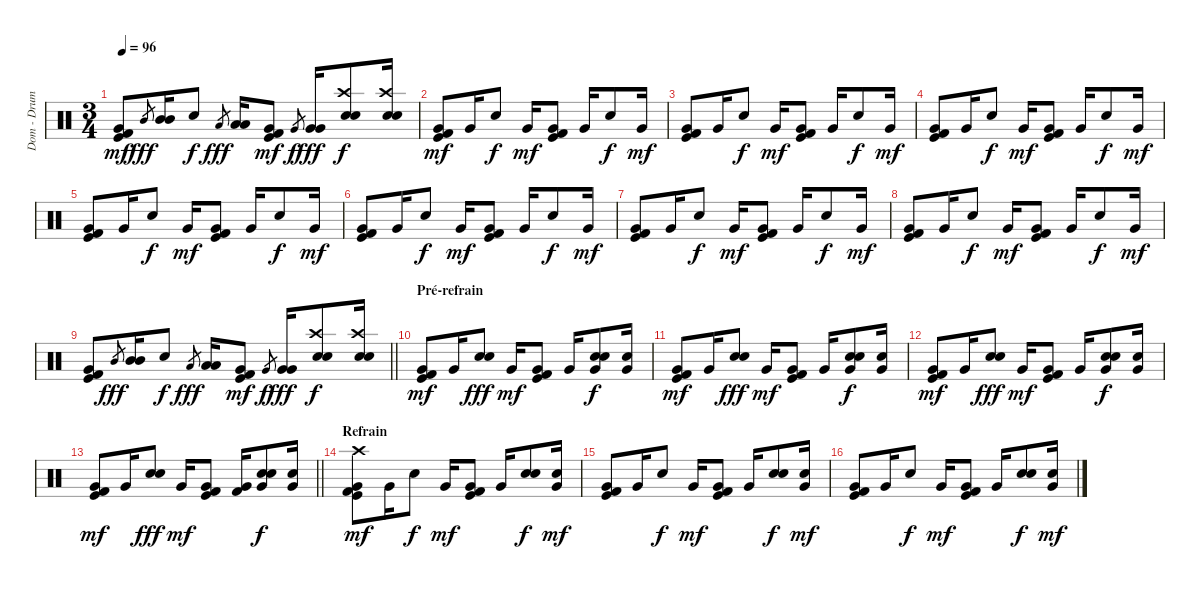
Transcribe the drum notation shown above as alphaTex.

\track ("Dom - Drums" "Dom - Drum") {instrument percussion}
\staff {score}
\articulation defaults
\ts (3 4)
\tempo 96
\clef neutral
\ks c
("Very Low Tom (hit)" "Kick (hit)" "Kick (hit) 2").8{dy mf} "Mid Tom (hit)".8{gr dy fff} ("Mid Tom (hit)" "Mid Tom (hit)").16 "Snare (hit) 2".8{dy f} "Low Tom (hit)".8{gr dy fff} ("Low Tom (hit)" "Low Tom (hit)").16 ("Very Low Tom (hit)" "Kick (hit)" "Kick (hit) 2").8{dy mf} "Very Low Tom (hit)".8{gr dy f} ("Very Low Tom (hit)" "Very Low Tom (hit)").16{dy fff} ("Crash high (hit)" "Snare (hit) 2" "Hand Clap (hit)").8{dy f} ("Crash high (hit)" "Snare (hit) 2" "Hand Clap (hit)").16 |
("Very Low Tom (hit)" "Kick (hit)" "Kick (hit) 2").8{dy mf} "Very Low Tom (hit)".16 "Snare (hit) 2".8{dy f} "Very Low Tom (hit)".16{dy mf} ("Very Low Tom (hit)" "Kick (hit)" "Kick (hit) 2").8 "Very Low Tom (hit)".16 "Snare (hit) 2".8{dy f} "Very Low Tom (hit)".16{dy mf} |
("Very Low Tom (hit)" "Kick (hit)" "Kick (hit) 2").8 "Very Low Tom (hit)".16 "Snare (hit) 2".8{dy f} "Very Low Tom (hit)".16{dy mf} ("Very Low Tom (hit)" "Kick (hit)" "Kick (hit) 2").8 "Very Low Tom (hit)".16 "Snare (hit) 2".8{dy f} "Very Low Tom (hit)".16{dy mf} |
("Very Low Tom (hit)" "Kick (hit)" "Kick (hit) 2").8 "Very Low Tom (hit)".16 "Snare (hit) 2".8{dy f} "Very Low Tom (hit)".16{dy mf} ("Very Low Tom (hit)" "Kick (hit)" "Kick (hit) 2").8 "Very Low Tom (hit)".16 "Snare (hit) 2".8{dy f} "Very Low Tom (hit)".16{dy mf} |
("Very Low Tom (hit)" "Kick (hit)" "Kick (hit) 2").8 "Very Low Tom (hit)".16 "Snare (hit) 2".8{dy f} "Very Low Tom (hit)".16{dy mf} ("Very Low Tom (hit)" "Kick (hit)" "Kick (hit) 2").8 "Very Low Tom (hit)".16 "Snare (hit) 2".8{dy f} "Very Low Tom (hit)".16{dy mf} |
("Very Low Tom (hit)" "Kick (hit)" "Kick (hit) 2").8 "Very Low Tom (hit)".16 "Snare (hit) 2".8{dy f} "Very Low Tom (hit)".16{dy mf} ("Very Low Tom (hit)" "Kick (hit)" "Kick (hit) 2").8 "Very Low Tom (hit)".16 "Snare (hit) 2".8{dy f} "Very Low Tom (hit)".16{dy mf} |
("Very Low Tom (hit)" "Kick (hit)" "Kick (hit) 2").8 "Very Low Tom (hit)".16 "Snare (hit) 2".8{dy f} "Very Low Tom (hit)".16{dy mf} ("Very Low Tom (hit)" "Kick (hit)" "Kick (hit) 2").8 "Very Low Tom (hit)".16 "Snare (hit) 2".8{dy f} "Very Low Tom (hit)".16{dy mf} |
("Very Low Tom (hit)" "Kick (hit)" "Kick (hit) 2").8 "Very Low Tom (hit)".16 "Snare (hit) 2".8{dy f} "Very Low Tom (hit)".16{dy mf} ("Very Low Tom (hit)" "Kick (hit)" "Kick (hit) 2").8 "Very Low Tom (hit)".16 "Snare (hit) 2".8{dy f} "Very Low Tom (hit)".16{dy mf} |
\barLineRight lightlight
("Very Low Tom (hit)" "Kick (hit)" "Kick (hit) 2").8 "Mid Tom (hit)".8{gr dy fff} ("Mid Tom (hit)" "Mid Tom (hit)").16 "Snare (hit) 2".8{dy f} "Low Tom (hit)".8{gr dy fff} ("Low Tom (hit)" "Low Tom (hit)").16 ("Very Low Tom (hit)" "Kick (hit)" "Kick (hit) 2").8{dy mf} "Very Low Tom (hit)".8{gr dy f} ("Very Low Tom (hit)" "Very Low Tom (hit)").16{dy fff} ("Crash high (hit)" "Snare (hit) 2" "Hand Clap (hit)").8{dy f} ("Crash high (hit)" "Snare (hit) 2" "Hand Clap (hit)").16 |
\section ("" "Pré-refrain")
("Very Low Tom (hit)" "Kick (hit)" "Kick (hit) 2").8{dy mf} "Very Low Tom (hit)".16 ("Electric Snare (hit)" "Snare (hit) 2").8{dy fff} "Very Low Tom (hit)".16{dy mf} ("Very Low Tom (hit)" "Kick (hit)" "Kick (hit) 2").8 "Very Low Tom (hit)".16 ("Very Low Tom (hit)" "Snare (hit) 2" "Hand Clap (hit)").8{dy f} ("Very Low Tom (hit)" "Hand Clap (hit)").16 |
("Very Low Tom (hit)" "Kick (hit)" "Kick (hit) 2").8{dy mf} "Very Low Tom (hit)".16 ("Electric Snare (hit)" "Snare (hit) 2").8{dy fff} "Very Low Tom (hit)".16{dy mf} ("Very Low Tom (hit)" "Kick (hit)" "Kick (hit) 2").8 "Very Low Tom (hit)".16 ("Very Low Tom (hit)" "Snare (hit) 2" "Hand Clap (hit)").8{dy f} ("Very Low Tom (hit)" "Hand Clap (hit)").16 |
("Very Low Tom (hit)" "Kick (hit)" "Kick (hit) 2").8{dy mf} "Very Low Tom (hit)".16 ("Electric Snare (hit)" "Snare (hit) 2").8{dy fff} "Very Low Tom (hit)".16{dy mf} ("Very Low Tom (hit)" "Kick (hit)" "Kick (hit) 2").8 "Very Low Tom (hit)".16 ("Very Low Tom (hit)" "Snare (hit) 2" "Hand Clap (hit)").8{dy f} ("Very Low Tom (hit)" "Hand Clap (hit)").16 |
\barLineRight lightlight
("Very Low Tom (hit)" "Kick (hit)" "Kick (hit) 2").8{dy mf} "Very Low Tom (hit)".16 ("Electric Snare (hit)" "Snare (hit) 2").8{dy fff} "Very Low Tom (hit)".16{dy mf} ("Very Low Tom (hit)" "Kick (hit)" "Kick (hit) 2").8 ("Very Low Tom (hit)" "Kick (hit) 2").16 ("Very Low Tom (hit)" "Snare (hit) 2" "Hand Clap (hit)").8{dy f} ("Very Low Tom (hit)" "Hand Clap (hit)").16 |
\section ("" "Refrain")
("Crash high (hit)" "Very Low Tom (hit)" "Kick (hit)" "Kick (hit) 2").8{dy mf} "Very Low Tom (hit)".16 "Snare (hit) 2".8{dy f} "Very Low Tom (hit)".16{dy mf} ("Very Low Tom (hit)" "Kick (hit)" "Kick (hit) 2").8 "Very Low Tom (hit)".16 ("Snare (hit) 2" "Hand Clap (hit)").8{dy f} ("Very Low Tom (hit)" "Hand Clap (hit)").16{dy mf} |
("Very Low Tom (hit)" "Kick (hit)" "Kick (hit) 2").8 "Very Low Tom (hit)".16 "Snare (hit) 2".8{dy f} "Very Low Tom (hit)".16{dy mf} ("Very Low Tom (hit)" "Kick (hit)" "Kick (hit) 2").8 "Very Low Tom (hit)".16 ("Snare (hit) 2" "Hand Clap (hit)").8{dy f} ("Very Low Tom (hit)" "Hand Clap (hit)").16{dy mf} |
("Very Low Tom (hit)" "Kick (hit)" "Kick (hit) 2").8 "Very Low Tom (hit)".16 "Snare (hit) 2".8{dy f} "Very Low Tom (hit)".16{dy mf} ("Very Low Tom (hit)" "Kick (hit)" "Kick (hit) 2").8 "Very Low Tom (hit)".16 ("Snare (hit) 2" "Hand Clap (hit)").8{dy f} ("Very Low Tom (hit)" "Hand Clap (hit)").16{dy mf}
